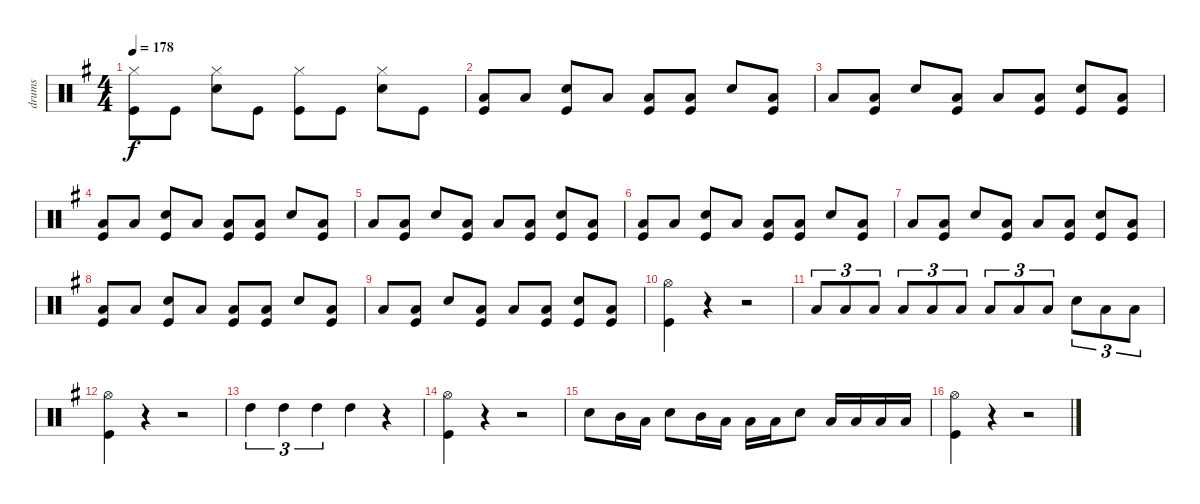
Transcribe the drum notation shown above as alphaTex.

\track ("drums" "drums") {instrument percussion}
\staff {score}
\articulation defaults
\ts (4 4)
\tempo 178
\clef neutral
\ks eminor
("Hi-Hat (closed)" "Kick (hit)").8{dy f} "Kick (hit)".8 ("Hi-Hat (closed)" "Snare (hit) 2").8 "Kick (hit)".8 ("Hi-Hat (closed)" "Kick (hit)").8 "Kick (hit)".8 ("Hi-Hat (closed)" "Snare (hit) 2").8 "Kick (hit)".8 |
("Low Tom (hit)" "Kick (hit)").8 "Low Tom (hit)".8 ("Snare (hit) 2" "Kick (hit)").8 "Low Tom (hit)".8 ("Low Tom (hit)" "Kick (hit)").8 ("Low Tom (hit)" "Kick (hit)").8 "Snare (hit) 2".8 ("Low Tom (hit)" "Kick (hit)").8 |
"Low Tom (hit)".8 ("Low Tom (hit)" "Kick (hit)").8 "Snare (hit) 2".8 ("Low Tom (hit)" "Kick (hit)").8 "Low Tom (hit)".8 ("Low Tom (hit)" "Kick (hit)").8 ("Snare (hit) 2" "Kick (hit)").8 ("Low Tom (hit)" "Kick (hit)").8 |
("Low Tom (hit)" "Kick (hit)").8 "Low Tom (hit)".8 ("Snare (hit) 2" "Kick (hit)").8 "Low Tom (hit)".8 ("Low Tom (hit)" "Kick (hit)").8 ("Low Tom (hit)" "Kick (hit)").8 "Snare (hit) 2".8 ("Low Tom (hit)" "Kick (hit)").8 |
"Low Tom (hit)".8 ("Low Tom (hit)" "Kick (hit)").8 "Snare (hit) 2".8 ("Low Tom (hit)" "Kick (hit)").8 "Low Tom (hit)".8 ("Low Tom (hit)" "Kick (hit)").8 ("Snare (hit) 2" "Kick (hit)").8 ("Low Tom (hit)" "Kick (hit)").8 |
("Low Tom (hit)" "Kick (hit)").8 "Low Tom (hit)".8 ("Snare (hit) 2" "Kick (hit)").8 "Low Tom (hit)".8 ("Low Tom (hit)" "Kick (hit)").8 ("Low Tom (hit)" "Kick (hit)").8 "Snare (hit) 2".8 ("Low Tom (hit)" "Kick (hit)").8 |
"Low Tom (hit)".8 ("Low Tom (hit)" "Kick (hit)").8 "Snare (hit) 2".8 ("Low Tom (hit)" "Kick (hit)").8 "Low Tom (hit)".8 ("Low Tom (hit)" "Kick (hit)").8 ("Snare (hit) 2" "Kick (hit)").8 ("Low Tom (hit)" "Kick (hit)").8 |
("Low Tom (hit)" "Kick (hit)").8 "Low Tom (hit)".8 ("Snare (hit) 2" "Kick (hit)").8 "Low Tom (hit)".8 ("Low Tom (hit)" "Kick (hit)").8 ("Low Tom (hit)" "Kick (hit)").8 "Snare (hit) 2".8 ("Low Tom (hit)" "Kick (hit)").8 |
"Low Tom (hit)".8 ("Low Tom (hit)" "Kick (hit)").8 "Snare (hit) 2".8 ("Low Tom (hit)" "Kick (hit)").8 "Low Tom (hit)".8 ("Low Tom (hit)" "Kick (hit)").8 ("Snare (hit) 2" "Kick (hit)").8 ("Low Tom (hit)" "Kick (hit)").8 |
("Hi-Hat (open)" "Kick (hit)").4 r.4 r.2 |
"Low Tom (hit)".8{tu (3 2)} "Low Tom (hit)".8{tu (3 2)} "Low Tom (hit)".8{tu (3 2)} "Low Tom (hit)".8{tu (3 2)} "Low Tom (hit)".8{tu (3 2)} "Low Tom (hit)".8{tu (3 2)} "Low Tom (hit)".8{tu (3 2)} "Low Tom (hit)".8{tu (3 2)} "Low Tom (hit)".8{tu (3 2)} "Snare (hit) 2".8{tu (3 2)} "Low Tom (hit)".8{tu (3 2)} "Low Tom (hit)".8{tu (3 2)} |
("Hi-Hat (open)" "Kick (hit)").4 r.4 r.2 |
"High Tom (hit)".4{tu (3 2)} "High Tom (hit)".4{tu (3 2)} "High Tom (hit)".4{tu (3 2)} "High Tom (hit)".4 r.4 |
("Hi-Hat (open)" "Kick (hit)").4 r.4 r.2 |
"Snare (hit) 2".8 "Mid Tom (hit)".16 "Low Tom (hit)".16 "Snare (hit) 2".8 "Mid Tom (hit)".16 "Low Tom (hit)".16 "Low Tom (hit)".16 "Low Tom (hit)".16 "Snare (hit) 2".8 "Low Tom (hit)".16 "Low Tom (hit)".16 "Low Tom (hit)".16 "Low Tom (hit)".16 |
("Hi-Hat (open)" "Kick (hit)").4 r.4 r.2
